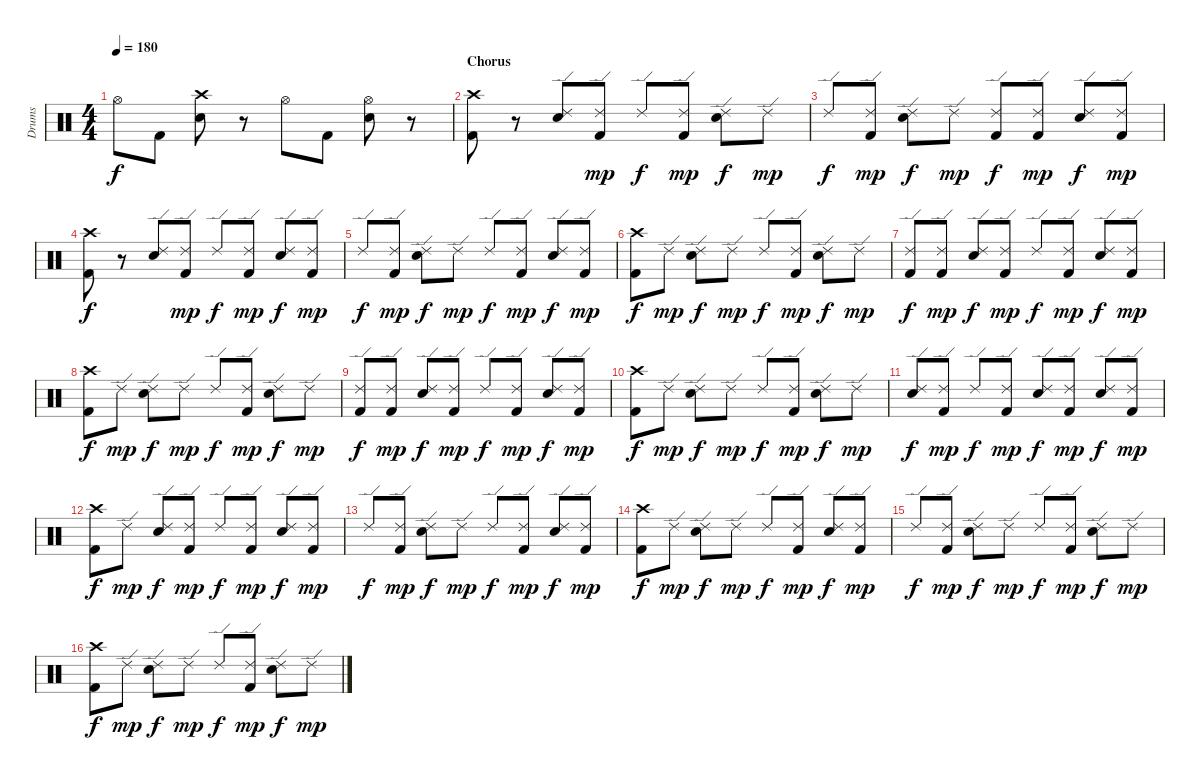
\track ("Drums" "Drums") {instrument percussion}
\staff {score}
\articulation defaults
\ts (4 4)
\tempo 180
\clef neutral
\ks c "Hi-Hat (open)".8{dy f} "Kick (hit) 2".8
("Crash high (hit)" "Electric Snare (hit)").8 r.8 "Hi-Hat (open)".8 "Kick (hit) 2".8 ("Hi-Hat (open)" "Electric Snare (hit)").8 r.8 |
\section ("" "Chorus")
("Crash high (hit)" "Kick (hit) 2").8 r.8 ("Ride (edge) 2" "Electric Snare (hit)").8 ("Ride (edge) 2" "Kick (hit) 2").8{dy mp} "Ride (edge) 2".8{dy f} ("Ride (edge) 2" "Kick (hit) 2").8{dy mp} ("Ride (edge) 2" "Electric Snare (hit)").8{dy f} "Ride (edge) 2".8{dy mp} |
"Ride (edge) 2".8{dy f} ("Ride (edge) 2" "Kick (hit) 2").8{dy mp} ("Ride (edge) 2" "Electric Snare (hit)").8{dy f} "Ride (edge) 2".8{dy mp} ("Ride (edge) 2" "Kick (hit) 2").8{dy f} ("Ride (edge) 2" "Kick (hit) 2").8{dy mp} ("Ride (edge) 2" "Electric Snare (hit)").8{dy f} ("Ride (edge) 2" "Kick (hit) 2").8{dy mp} |
("Crash high (hit)" "Kick (hit) 2").8{dy f} r.8 ("Ride (edge) 2" "Electric Snare (hit)").8 ("Ride (edge) 2" "Kick (hit) 2").8{dy mp} "Ride (edge) 2".8{dy f} ("Ride (edge) 2" "Kick (hit) 2").8{dy mp} ("Ride (edge) 2" "Electric Snare (hit)").8{dy f} ("Ride (edge) 2" "Kick (hit) 2").8{dy mp} |
"Ride (edge) 2".8{dy f} ("Ride (edge) 2" "Kick (hit) 2").8{dy mp} ("Ride (edge) 2" "Electric Snare (hit)").8{dy f} "Ride (edge) 2".8{dy mp} "Ride (edge) 2".8{dy f} ("Ride (edge) 2" "Kick (hit) 2").8{dy mp} ("Ride (edge) 2" "Electric Snare (hit)").8{dy f} ("Ride (edge) 2" "Kick (hit) 2").8{dy mp} |
("Crash high (hit)" "Kick (hit) 2").8{dy f} "Ride (edge) 2".8{dy mp} ("Ride (edge) 2" "Electric Snare (hit)").8{dy f} "Ride (edge) 2".8{dy mp} "Ride (edge) 2".8{dy f} ("Ride (edge) 2" "Kick (hit) 2").8{dy mp} ("Ride (edge) 2" "Electric Snare (hit)").8{dy f} "Ride (edge) 2".8{dy mp} |
("Ride (edge) 2" "Kick (hit) 2").8{dy f} ("Ride (edge) 2" "Kick (hit) 2").8{dy mp} ("Ride (edge) 2" "Electric Snare (hit)").8{dy f} ("Ride (edge) 2" "Kick (hit) 2").8{dy mp} "Ride (edge) 2".8{dy f} ("Ride (edge) 2" "Kick (hit) 2").8{dy mp} ("Ride (edge) 2" "Electric Snare (hit)").8{dy f} ("Ride (edge) 2" "Kick (hit) 2").8{dy mp} |
("Crash high (hit)" "Kick (hit) 2").8{dy f} "Ride (edge) 2".8{dy mp} ("Ride (edge) 2" "Electric Snare (hit)").8{dy f} "Ride (edge) 2".8{dy mp} "Ride (edge) 2".8{dy f} ("Ride (edge) 2" "Kick (hit) 2").8{dy mp} ("Ride (edge) 2" "Electric Snare (hit)").8{dy f} "Ride (edge) 2".8{dy mp} |
("Ride (edge) 2" "Kick (hit) 2").8{dy f} ("Ride (edge) 2" "Kick (hit) 2").8{dy mp} ("Ride (edge) 2" "Electric Snare (hit)").8{dy f} ("Ride (edge) 2" "Kick (hit) 2").8{dy mp} "Ride (edge) 2".8{dy f} ("Ride (edge) 2" "Kick (hit) 2").8{dy mp} ("Ride (edge) 2" "Electric Snare (hit)").8{dy f} ("Ride (edge) 2" "Kick (hit) 2").8{dy mp} |
("Crash high (hit)" "Kick (hit) 2").8{dy f} "Ride (edge) 2".8{dy mp} ("Ride (edge) 2" "Electric Snare (hit)").8{dy f} "Ride (edge) 2".8{dy mp} "Ride (edge) 2".8{dy f} ("Ride (edge) 2" "Kick (hit) 2").8{dy mp} ("Ride (edge) 2" "Electric Snare (hit)").8{dy f} "Ride (edge) 2".8{dy mp} |
("Ride (edge) 2" "Electric Snare (hit)").8{dy f} ("Ride (edge) 2" "Kick (hit) 2").8{dy mp} "Ride (edge) 2".8{dy f} ("Ride (edge) 2" "Kick (hit) 2").8{dy mp} ("Ride (edge) 2" "Electric Snare (hit)").8{dy f} ("Ride (edge) 2" "Kick (hit) 2").8{dy mp} ("Ride (edge) 2" "Electric Snare (hit)").8{dy f} ("Ride (edge) 2" "Kick (hit) 2").8{dy mp} |
("Crash high (hit)" "Kick (hit) 2").8{dy f} "Ride (edge) 2".8{dy mp} ("Ride (edge) 2" "Electric Snare (hit)").8{dy f} ("Ride (edge) 2" "Kick (hit) 2").8{dy mp} "Ride (edge) 2".8{dy f} ("Ride (edge) 2" "Kick (hit) 2").8{dy mp} ("Ride (edge) 2" "Electric Snare (hit)").8{dy f} ("Ride (edge) 2" "Kick (hit) 2").8{dy mp} |
"Ride (edge) 2".8{dy f} ("Ride (edge) 2" "Kick (hit) 2").8{dy mp} ("Ride (edge) 2" "Electric Snare (hit)").8{dy f} "Ride (edge) 2".8{dy mp} "Ride (edge) 2".8{dy f} ("Ride (edge) 2" "Kick (hit) 2").8{dy mp} ("Ride (edge) 2" "Electric Snare (hit)").8{dy f} ("Ride (edge) 2" "Kick (hit) 2").8{dy mp} |
("Crash high (hit)" "Kick (hit) 2").8{dy f} "Ride (edge) 2".8{dy mp} ("Ride (edge) 2" "Electric Snare (hit)").8{dy f} "Ride (edge) 2".8{dy mp} "Ride (edge) 2".8{dy f} ("Ride (edge) 2" "Kick (hit) 2").8{dy mp} ("Ride (edge) 2" "Electric Snare (hit)").8{dy f} ("Ride (edge) 2" "Kick (hit) 2").8{dy mp} |
"Ride (edge) 2".8{dy f} ("Ride (edge) 2" "Kick (hit) 2").8{dy mp} ("Ride (edge) 2" "Electric Snare (hit)").8{dy f} "Ride (edge) 2".8{dy mp} "Ride (edge) 2".8{dy f} ("Ride (edge) 2" "Kick (hit) 2").8{dy mp} ("Ride (edge) 2" "Electric Snare (hit)").8{dy f} "Ride (edge) 2".8{dy mp} |
("Crash high (hit)" "Kick (hit) 2").8{dy f} "Ride (edge) 2".8{dy mp} ("Ride (edge) 2" "Electric Snare (hit)").8{dy f} "Ride (edge) 2".8{dy mp} "Ride (edge) 2".8{dy f} ("Ride (edge) 2" "Kick (hit) 2").8{dy mp} ("Ride (edge) 2" "Electric Snare (hit)").8{dy f} "Ride (edge) 2".8{dy mp}
